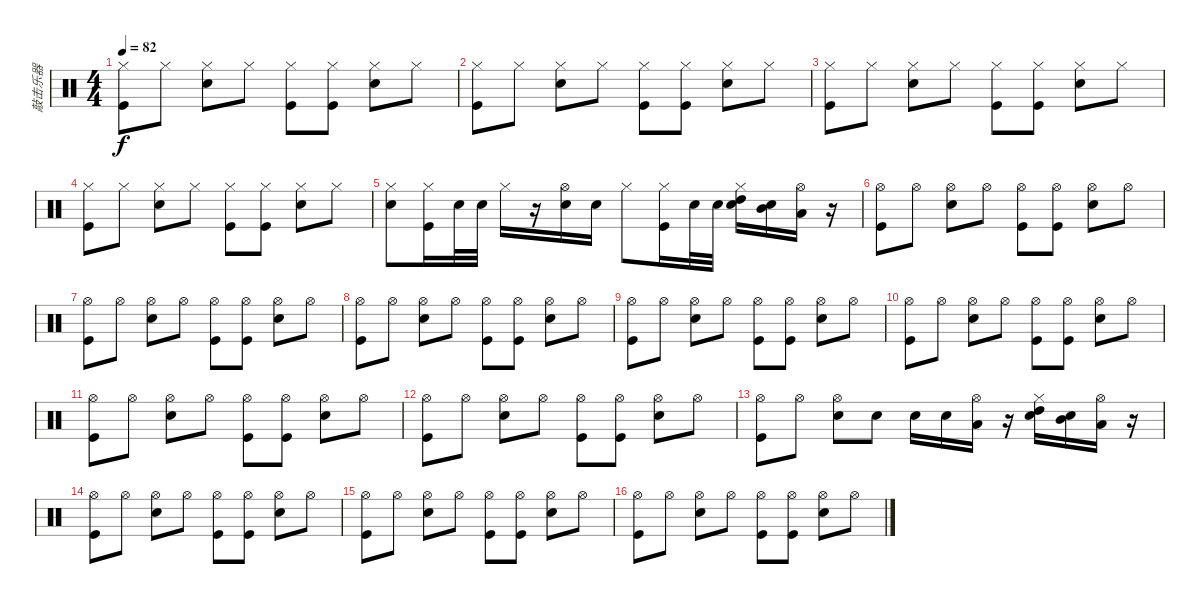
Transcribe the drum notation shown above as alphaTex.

\track ("敲击乐器" "敲击乐器") {instrument percussion}
\staff {score}
\articulation defaults
\ts (4 4)
\tempo 82
\clef neutral
\ks c
("Hi-Hat (closed)" "Kick (hit)").8{dy f} "Hi-Hat (closed)".8 ("Hi-Hat (closed)" "Snare (hit) 2").8 "Hi-Hat (closed)".8 ("Hi-Hat (closed)" "Kick (hit)").8 ("Hi-Hat (closed)" "Kick (hit)").8 ("Hi-Hat (closed)" "Snare (hit) 2").8 "Hi-Hat (closed)".8 |
("Hi-Hat (closed)" "Kick (hit)").8 "Hi-Hat (closed)".8 ("Hi-Hat (closed)" "Snare (hit) 2").8 "Hi-Hat (closed)".8 ("Hi-Hat (closed)" "Kick (hit)").8 ("Hi-Hat (closed)" "Kick (hit)").8 ("Hi-Hat (closed)" "Snare (hit) 2").8 "Hi-Hat (closed)".8 |
("Hi-Hat (closed)" "Kick (hit)").8 "Hi-Hat (closed)".8 ("Hi-Hat (closed)" "Snare (hit) 2").8 "Hi-Hat (closed)".8 ("Hi-Hat (closed)" "Kick (hit)").8 ("Hi-Hat (closed)" "Kick (hit)").8 ("Hi-Hat (closed)" "Snare (hit) 2").8 "Hi-Hat (closed)".8 |
("Hi-Hat (closed)" "Kick (hit)").8 "Hi-Hat (closed)".8 ("Hi-Hat (closed)" "Snare (hit) 2").8 "Hi-Hat (closed)".8 ("Hi-Hat (closed)" "Kick (hit)").8 ("Hi-Hat (closed)" "Kick (hit)").8 ("Hi-Hat (closed)" "Snare (hit) 2").8 "Hi-Hat (closed)".8 |
("Hi-Hat (closed)" "Snare (hit) 2").8 ("Hi-Hat (closed)" "Kick (hit)").16 "Snare (hit) 2".32 "Snare (hit) 2".32 "Hi-Hat (closed)".16 r.16 ("Hi-Hat (open)" "Snare (hit) 2").16 "Snare (hit) 2".16 "Hi-Hat (closed)".8 ("Hi-Hat (closed)" "Kick (hit)").16 "Snare (hit) 2".32 "Snare (hit) 2".32 ("Hi-Hat (closed)" "High Tom (hit)" "Snare (hit) 2").16 ("Mid Tom (hit)" "Snare (hit) 2").16 ("Hi-Hat (open)" "Low Tom (hit)").16 r.16 |
("Hi-Hat (open)" "Kick (hit)").8 "Hi-Hat (open)".8 ("Hi-Hat (open)" "Snare (hit) 2").8 "Hi-Hat (open)".8 ("Hi-Hat (open)" "Kick (hit)").8 ("Hi-Hat (open)" "Kick (hit)").8 ("Hi-Hat (open)" "Snare (hit) 2").8 "Hi-Hat (open)".8 |
("Hi-Hat (open)" "Kick (hit)").8 "Hi-Hat (open)".8 ("Hi-Hat (open)" "Snare (hit) 2").8 "Hi-Hat (open)".8 ("Hi-Hat (open)" "Kick (hit)").8 ("Hi-Hat (open)" "Kick (hit)").8 ("Hi-Hat (open)" "Snare (hit) 2").8 "Hi-Hat (open)".8 |
("Hi-Hat (open)" "Kick (hit)").8 "Hi-Hat (open)".8 ("Hi-Hat (open)" "Snare (hit) 2").8 "Hi-Hat (open)".8 ("Hi-Hat (open)" "Kick (hit)").8 ("Hi-Hat (open)" "Kick (hit)").8 ("Hi-Hat (open)" "Snare (hit) 2").8 "Hi-Hat (open)".8 |
("Hi-Hat (open)" "Kick (hit)").8 "Hi-Hat (open)".8 ("Hi-Hat (open)" "Snare (hit) 2").8 "Hi-Hat (open)".8 ("Hi-Hat (open)" "Kick (hit)").8 ("Hi-Hat (open)" "Kick (hit)").8 ("Hi-Hat (open)" "Snare (hit) 2").8 "Hi-Hat (open)".8 |
("Hi-Hat (open)" "Kick (hit)").8 "Hi-Hat (open)".8 ("Hi-Hat (open)" "Snare (hit) 2").8 "Hi-Hat (open)".8 ("Hi-Hat (open)" "Kick (hit)").8 ("Hi-Hat (open)" "Kick (hit)").8 ("Hi-Hat (open)" "Snare (hit) 2").8 "Hi-Hat (open)".8 |
("Hi-Hat (open)" "Kick (hit)").8 "Hi-Hat (open)".8 ("Hi-Hat (open)" "Snare (hit) 2").8 "Hi-Hat (open)".8 ("Hi-Hat (open)" "Kick (hit)").8 ("Hi-Hat (open)" "Kick (hit)").8 ("Hi-Hat (open)" "Snare (hit) 2").8 "Hi-Hat (open)".8 |
("Hi-Hat (open)" "Kick (hit)").8 "Hi-Hat (open)".8 ("Hi-Hat (open)" "Snare (hit) 2").8 "Hi-Hat (open)".8 ("Hi-Hat (open)" "Kick (hit)").8 ("Hi-Hat (open)" "Kick (hit)").8 ("Hi-Hat (open)" "Snare (hit) 2").8 "Hi-Hat (open)".8 |
("Hi-Hat (open)" "Kick (hit)").8 "Hi-Hat (open)".8 ("Hi-Hat (open)" "Snare (hit) 2").8 "Snare (hit) 2".8 "Snare (hit) 2".16 "Snare (hit) 2".16 ("Hi-Hat (open)" "Low Tom (hit)").16 r.16 ("Hi-Hat (closed)" "High Tom (hit)" "Snare (hit) 2").16 ("Mid Tom (hit)" "Snare (hit) 2").16 ("Hi-Hat (open)" "Low Tom (hit)").16 r.16 |
("Hi-Hat (open)" "Kick (hit)").8 "Hi-Hat (open)".8 ("Hi-Hat (open)" "Snare (hit) 2").8 "Hi-Hat (open)".8 ("Hi-Hat (open)" "Kick (hit)").8 ("Hi-Hat (open)" "Kick (hit)").8 ("Hi-Hat (open)" "Snare (hit) 2").8 "Hi-Hat (open)".8 |
("Hi-Hat (open)" "Kick (hit)").8 "Hi-Hat (open)".8 ("Hi-Hat (open)" "Snare (hit) 2").8 "Hi-Hat (open)".8 ("Hi-Hat (open)" "Kick (hit)").8 ("Hi-Hat (open)" "Kick (hit)").8 ("Hi-Hat (open)" "Snare (hit) 2").8 "Hi-Hat (open)".8 |
("Hi-Hat (open)" "Kick (hit)").8 "Hi-Hat (open)".8 ("Hi-Hat (open)" "Snare (hit) 2").8 "Hi-Hat (open)".8 ("Hi-Hat (open)" "Kick (hit)").8 ("Hi-Hat (open)" "Kick (hit)").8 ("Hi-Hat (open)" "Snare (hit) 2").8 "Hi-Hat (open)".8
